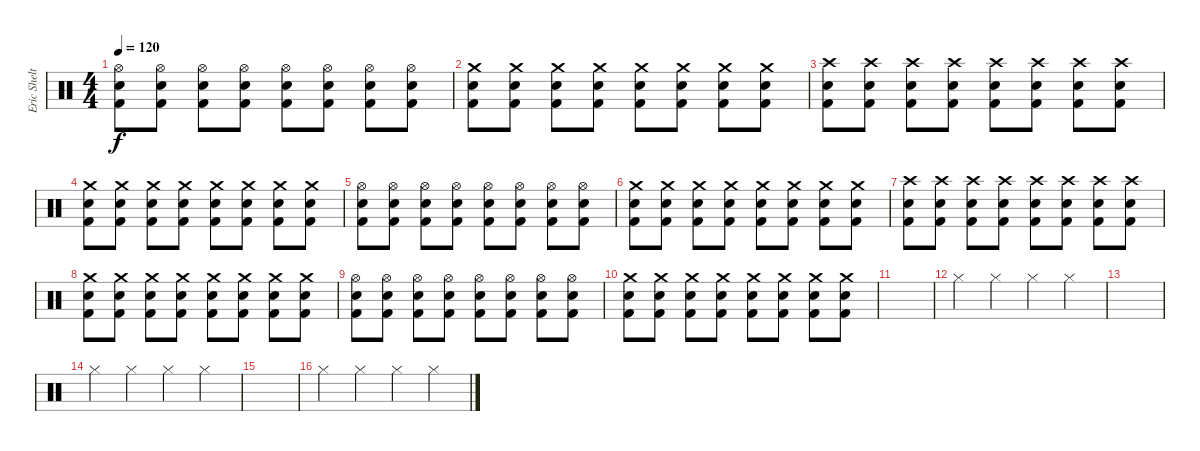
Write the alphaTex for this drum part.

\track ("Eric Shelton" "Eric Shelt") {instrument percussion}
\staff {score}
\articulation defaults
\ts (4 4)
\tempo 120
\clef neutral
\ks c
("Kick (hit) 2" "Electric Snare (hit)" "Hi-Hat (open)").8{dy f} ("Kick (hit) 2" "Electric Snare (hit)" "Hi-Hat (open)").8 ("Kick (hit) 2" "Electric Snare (hit)" "Hi-Hat (open)").8 ("Kick (hit) 2" "Electric Snare (hit)" "Hi-Hat (open)").8 ("Kick (hit) 2" "Electric Snare (hit)" "Hi-Hat (open)").8 ("Kick (hit) 2" "Electric Snare (hit)" "Hi-Hat (open)").8 ("Kick (hit) 2" "Electric Snare (hit)" "Hi-Hat (open)").8 ("Kick (hit) 2" "Electric Snare (hit)" "Hi-Hat (open)").8 |
("Kick (hit) 2" "Electric Snare (hit)" "Crash medium (hit)").8 ("Kick (hit) 2" "Electric Snare (hit)" "Crash medium (hit)").8 ("Kick (hit) 2" "Electric Snare (hit)" "Crash medium (hit)").8 ("Kick (hit) 2" "Electric Snare (hit)" "Crash medium (hit)").8 ("Kick (hit) 2" "Electric Snare (hit)" "Crash medium (hit)").8 ("Kick (hit) 2" "Electric Snare (hit)" "Crash medium (hit)").8 ("Kick (hit) 2" "Electric Snare (hit)" "Crash medium (hit)").8 ("Kick (hit) 2" "Electric Snare (hit)" "Crash medium (hit)").8 |
("Kick (hit) 2" "Electric Snare (hit)" "Crash high (hit)").8 ("Kick (hit) 2" "Electric Snare (hit)" "Crash high (hit)").8 ("Kick (hit) 2" "Electric Snare (hit)" "Crash high (hit)").8 ("Kick (hit) 2" "Electric Snare (hit)" "Crash high (hit)").8 ("Kick (hit) 2" "Electric Snare (hit)" "Crash high (hit)").8 ("Kick (hit) 2" "Electric Snare (hit)" "Crash high (hit)").8 ("Kick (hit) 2" "Electric Snare (hit)" "Crash high (hit)").8 ("Kick (hit) 2" "Electric Snare (hit)" "Crash high (hit)").8 |
("Kick (hit) 2" "Electric Snare (hit)" "Crash medium (hit)").8 ("Kick (hit) 2" "Electric Snare (hit)" "Crash medium (hit)").8 ("Kick (hit) 2" "Electric Snare (hit)" "Crash medium (hit)").8 ("Kick (hit) 2" "Electric Snare (hit)" "Crash medium (hit)").8 ("Kick (hit) 2" "Electric Snare (hit)" "Crash medium (hit)").8 ("Kick (hit) 2" "Electric Snare (hit)" "Crash medium (hit)").8 ("Kick (hit) 2" "Electric Snare (hit)" "Crash medium (hit)").8 ("Kick (hit) 2" "Electric Snare (hit)" "Crash medium (hit)").8 |
("Kick (hit) 2" "Electric Snare (hit)" "Hi-Hat (open)").8 ("Kick (hit) 2" "Electric Snare (hit)" "Hi-Hat (open)").8 ("Kick (hit) 2" "Electric Snare (hit)" "Hi-Hat (open)").8 ("Kick (hit) 2" "Electric Snare (hit)" "Hi-Hat (open)").8 ("Kick (hit) 2" "Electric Snare (hit)" "Hi-Hat (open)").8 ("Kick (hit) 2" "Electric Snare (hit)" "Hi-Hat (open)").8 ("Kick (hit) 2" "Electric Snare (hit)" "Hi-Hat (open)").8 ("Kick (hit) 2" "Electric Snare (hit)" "Hi-Hat (open)").8 |
("Kick (hit) 2" "Electric Snare (hit)" "Crash medium (hit)").8 ("Kick (hit) 2" "Electric Snare (hit)" "Crash medium (hit)").8 ("Kick (hit) 2" "Electric Snare (hit)" "Crash medium (hit)").8 ("Kick (hit) 2" "Electric Snare (hit)" "Crash medium (hit)").8 ("Kick (hit) 2" "Electric Snare (hit)" "Crash medium (hit)").8 ("Kick (hit) 2" "Electric Snare (hit)" "Crash medium (hit)").8 ("Kick (hit) 2" "Electric Snare (hit)" "Crash medium (hit)").8 ("Kick (hit) 2" "Electric Snare (hit)" "Crash medium (hit)").8 |
("Kick (hit) 2" "Electric Snare (hit)" "Crash high (hit)").8 ("Kick (hit) 2" "Electric Snare (hit)" "Crash high (hit)").8 ("Kick (hit) 2" "Electric Snare (hit)" "Crash high (hit)").8 ("Kick (hit) 2" "Electric Snare (hit)" "Crash high (hit)").8 ("Kick (hit) 2" "Electric Snare (hit)" "Crash high (hit)").8 ("Kick (hit) 2" "Electric Snare (hit)" "Crash high (hit)").8 ("Kick (hit) 2" "Electric Snare (hit)" "Crash high (hit)").8 ("Kick (hit) 2" "Electric Snare (hit)" "Crash high (hit)").8 |
("Kick (hit) 2" "Electric Snare (hit)" "Crash medium (hit)").8 ("Kick (hit) 2" "Electric Snare (hit)" "Crash medium (hit)").8 ("Kick (hit) 2" "Electric Snare (hit)" "Crash medium (hit)").8 ("Kick (hit) 2" "Electric Snare (hit)" "Crash medium (hit)").8 ("Kick (hit) 2" "Electric Snare (hit)" "Crash medium (hit)").8 ("Kick (hit) 2" "Electric Snare (hit)" "Crash medium (hit)").8 ("Kick (hit) 2" "Electric Snare (hit)" "Crash medium (hit)").8 ("Kick (hit) 2" "Electric Snare (hit)" "Crash medium (hit)").8 |
("Kick (hit) 2" "Electric Snare (hit)" "Hi-Hat (open)").8 ("Kick (hit) 2" "Electric Snare (hit)" "Hi-Hat (open)").8 ("Kick (hit) 2" "Electric Snare (hit)" "Hi-Hat (open)").8 ("Kick (hit) 2" "Electric Snare (hit)" "Hi-Hat (open)").8 ("Kick (hit) 2" "Electric Snare (hit)" "Hi-Hat (open)").8 ("Kick (hit) 2" "Electric Snare (hit)" "Hi-Hat (open)").8 ("Kick (hit) 2" "Electric Snare (hit)" "Hi-Hat (open)").8 ("Kick (hit) 2" "Electric Snare (hit)" "Hi-Hat (open)").8 |
("Kick (hit) 2" "Electric Snare (hit)" "Crash medium (hit)").8 ("Kick (hit) 2" "Electric Snare (hit)" "Crash medium (hit)").8 ("Kick (hit) 2" "Electric Snare (hit)" "Crash medium (hit)").8 ("Kick (hit) 2" "Electric Snare (hit)" "Crash medium (hit)").8 ("Kick (hit) 2" "Electric Snare (hit)" "Crash medium (hit)").8 ("Kick (hit) 2" "Electric Snare (hit)" "Crash medium (hit)").8 ("Kick (hit) 2" "Electric Snare (hit)" "Crash medium (hit)").8 ("Kick (hit) 2" "Electric Snare (hit)" "Crash medium (hit)").8 |
|
"Hi-Hat (closed)".4 "Hi-Hat (closed)".4 "Hi-Hat (closed)".4 "Hi-Hat (closed)".4 |
|
"Hi-Hat (closed)".4 "Hi-Hat (closed)".4 "Hi-Hat (closed)".4 "Hi-Hat (closed)".4 |
|
"Hi-Hat (closed)".4 "Hi-Hat (closed)".4 "Hi-Hat (closed)".4 "Hi-Hat (closed)".4
